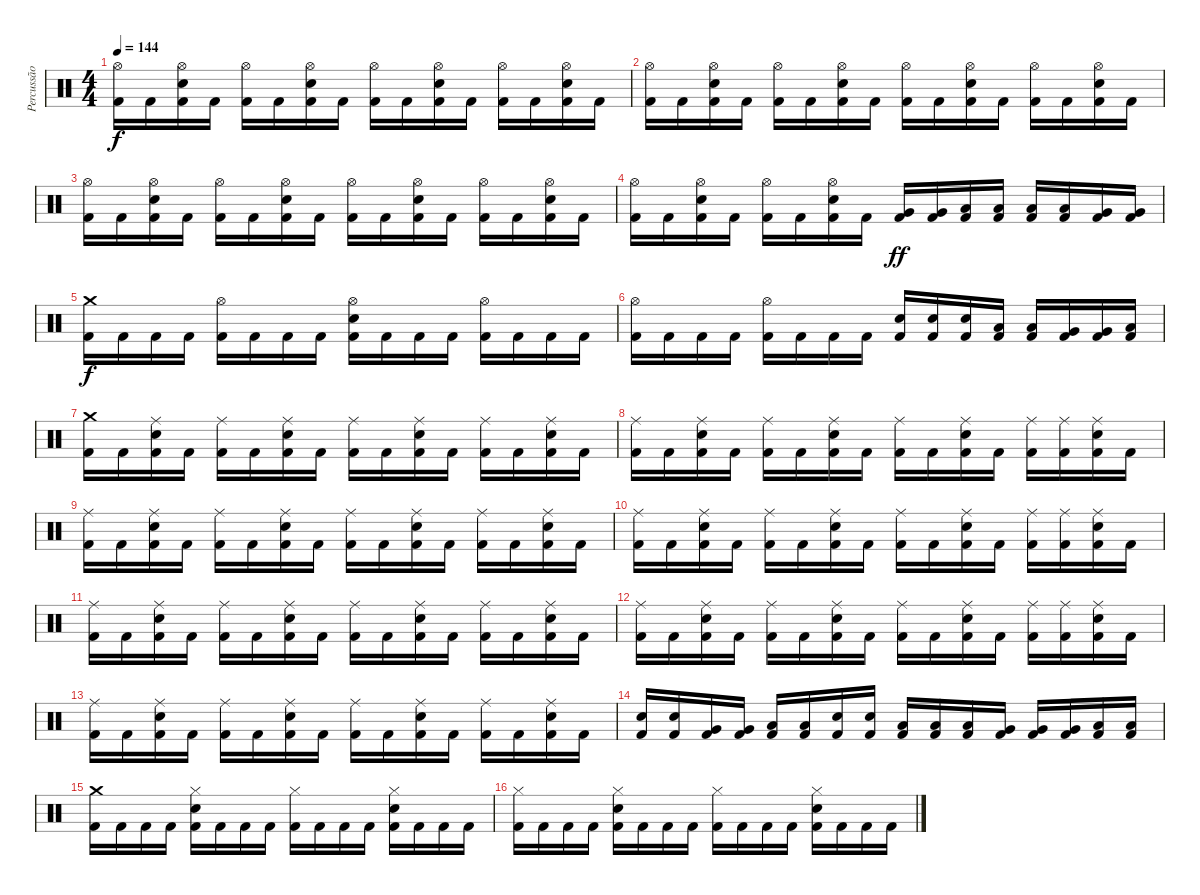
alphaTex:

\track ("Percussão" "Percussão") {instrument percussion}
\staff {score}
\articulation defaults
\ts (4 4)
\tempo 144
\clef neutral
\ks c
("Hi-Hat (open)" "Kick (hit) 2").16{dy f} "Kick (hit) 2".16 ("Hi-Hat (open)" "Electric Snare (hit)" "Kick (hit) 2").16 "Kick (hit) 2".16 ("Hi-Hat (open)" "Kick (hit) 2").16 "Kick (hit) 2".16 ("Hi-Hat (open)" "Electric Snare (hit)" "Kick (hit) 2").16 "Kick (hit) 2".16 ("Hi-Hat (open)" "Kick (hit) 2").16 "Kick (hit) 2".16 ("Hi-Hat (open)" "Electric Snare (hit)" "Kick (hit) 2").16 "Kick (hit) 2".16 ("Hi-Hat (open)" "Kick (hit) 2").16 "Kick (hit) 2".16 ("Hi-Hat (open)" "Electric Snare (hit)" "Kick (hit) 2").16 "Kick (hit) 2".16 |
("Hi-Hat (open)" "Kick (hit) 2").16 "Kick (hit) 2".16 ("Hi-Hat (open)" "Electric Snare (hit)" "Kick (hit) 2").16 "Kick (hit) 2".16 ("Hi-Hat (open)" "Kick (hit) 2").16 "Kick (hit) 2".16 ("Hi-Hat (open)" "Electric Snare (hit)" "Kick (hit) 2").16 "Kick (hit) 2".16 ("Hi-Hat (open)" "Kick (hit) 2").16 "Kick (hit) 2".16 ("Hi-Hat (open)" "Electric Snare (hit)" "Kick (hit) 2").16 "Kick (hit) 2".16 ("Hi-Hat (open)" "Kick (hit) 2").16 "Kick (hit) 2".16 ("Hi-Hat (open)" "Electric Snare (hit)" "Kick (hit) 2").16 "Kick (hit) 2".16 |
("Hi-Hat (open)" "Kick (hit) 2").16 "Kick (hit) 2".16 ("Hi-Hat (open)" "Electric Snare (hit)" "Kick (hit) 2").16 "Kick (hit) 2".16 ("Hi-Hat (open)" "Kick (hit) 2").16 "Kick (hit) 2".16 ("Hi-Hat (open)" "Electric Snare (hit)" "Kick (hit) 2").16 "Kick (hit) 2".16 ("Hi-Hat (open)" "Kick (hit) 2").16 "Kick (hit) 2".16 ("Hi-Hat (open)" "Electric Snare (hit)" "Kick (hit) 2").16 "Kick (hit) 2".16 ("Hi-Hat (open)" "Kick (hit) 2").16 "Kick (hit) 2".16 ("Hi-Hat (open)" "Electric Snare (hit)" "Kick (hit) 2").16 "Kick (hit) 2".16 |
("Hi-Hat (open)" "Kick (hit) 2").16 "Kick (hit) 2".16 ("Hi-Hat (open)" "Electric Snare (hit)" "Kick (hit) 2").16 "Kick (hit) 2".16 ("Hi-Hat (open)" "Kick (hit) 2").16 "Kick (hit) 2".16 ("Hi-Hat (open)" "Electric Snare (hit)" "Kick (hit) 2").16 "Kick (hit) 2".16 ("Very Low Tom (hit)" "Kick (hit) 2").16{dy ff} ("Very Low Tom (hit)" "Kick (hit) 2").16 ("Low Floor Tom (hit)" "Kick (hit) 2").16 ("Low Floor Tom (hit)" "Kick (hit) 2").16 ("Low Tom (hit)" "Kick (hit) 2").16 ("Low Tom (hit)" "Kick (hit) 2").16 ("Very Low Tom (hit)" "Kick (hit) 2").16 ("Very Low Tom (hit)" "Kick (hit) 2").16 |
("Crash medium (hit)" "Kick (hit) 2").16{dy f} "Kick (hit) 2".16 "Kick (hit) 2".16 "Kick (hit) 2".16 ("Hi-Hat (open)" "Kick (hit) 2").16 "Kick (hit) 2".16 "Kick (hit) 2".16 "Kick (hit) 2".16 ("Hi-Hat (open)" "Electric Snare (hit)" "Kick (hit) 2").16 "Kick (hit) 2".16 "Kick (hit) 2".16 "Kick (hit) 2".16 ("Hi-Hat (open)" "Kick (hit) 2").16 "Kick (hit) 2".16 "Kick (hit) 2".16 "Kick (hit) 2".16 |
("Hi-Hat (open)" "Kick (hit) 2").16 "Kick (hit) 2".16 "Kick (hit) 2".16 "Kick (hit) 2".16 ("Hi-Hat (open)" "Kick (hit) 2").16 "Kick (hit) 2".16 "Kick (hit) 2".16 "Kick (hit) 2".16 ("Electric Snare (hit)" "Kick (hit) 2").16 ("Electric Snare (hit)" "Kick (hit) 2").16 ("Electric Snare (hit)" "Kick (hit) 2").16 ("Low Tom (hit)" "Kick (hit) 2").16 ("Low Tom (hit)" "Kick (hit) 2").16 ("Very Low Tom (hit)" "Kick (hit) 2").16 ("Very Low Tom (hit)" "Kick (hit) 2").16 ("Low Floor Tom (hit)" "Kick (hit) 2").16 |
("Crash medium (hit)" "Kick (hit) 2").16 "Kick (hit) 2".16 ("Ride (middle)" "Electric Snare (hit)" "Kick (hit) 2").16 "Kick (hit) 2".16 ("Ride (middle)" "Kick (hit) 2").16 "Kick (hit) 2".16 ("Ride (middle)" "Electric Snare (hit)" "Kick (hit) 2").16 "Kick (hit) 2".16 ("Ride (middle)" "Kick (hit) 2").16 "Kick (hit) 2".16 ("Ride (middle)" "Electric Snare (hit)" "Kick (hit) 2").16 "Kick (hit) 2".16 ("Ride (middle)" "Kick (hit) 2").16 "Kick (hit) 2".16 ("Ride (middle)" "Electric Snare (hit)" "Kick (hit) 2").16 "Kick (hit) 2".16 |
("Ride (middle)" "Kick (hit) 2").16 "Kick (hit) 2".16 ("Ride (middle)" "Electric Snare (hit)" "Kick (hit) 2").16 "Kick (hit) 2".16 ("Ride (middle)" "Kick (hit) 2").16 "Kick (hit) 2".16 ("Ride (middle)" "Electric Snare (hit)" "Kick (hit) 2").16 "Kick (hit) 2".16 ("Ride (middle)" "Kick (hit) 2").16 "Kick (hit) 2".16 ("Ride (middle)" "Electric Snare (hit)" "Kick (hit) 2").16 "Kick (hit) 2".16 ("Ride (middle)" "Kick (hit) 2").16 ("Ride (middle)" "Kick (hit) 2").16 ("Ride (middle)" "Electric Snare (hit)" "Kick (hit) 2").16 "Kick (hit) 2".16 |
("Ride (middle)" "Kick (hit) 2").16 "Kick (hit) 2".16 ("Ride (middle)" "Electric Snare (hit)" "Kick (hit) 2").16 "Kick (hit) 2".16 ("Ride (middle)" "Kick (hit) 2").16 "Kick (hit) 2".16 ("Ride (middle)" "Electric Snare (hit)" "Kick (hit) 2").16 "Kick (hit) 2".16 ("Ride (middle)" "Kick (hit) 2").16 "Kick (hit) 2".16 ("Ride (middle)" "Electric Snare (hit)" "Kick (hit) 2").16 "Kick (hit) 2".16 ("Ride (middle)" "Kick (hit) 2").16 "Kick (hit) 2".16 ("Ride (middle)" "Electric Snare (hit)" "Kick (hit) 2").16 "Kick (hit) 2".16 |
("Ride (middle)" "Kick (hit) 2").16 "Kick (hit) 2".16 ("Ride (middle)" "Electric Snare (hit)" "Kick (hit) 2").16 "Kick (hit) 2".16 ("Ride (middle)" "Kick (hit) 2").16 "Kick (hit) 2".16 ("Ride (middle)" "Electric Snare (hit)" "Kick (hit) 2").16 "Kick (hit) 2".16 ("Ride (middle)" "Kick (hit) 2").16 "Kick (hit) 2".16 ("Ride (middle)" "Electric Snare (hit)" "Kick (hit) 2").16 "Kick (hit) 2".16 ("Ride (middle)" "Kick (hit) 2").16 ("Ride (middle)" "Kick (hit) 2").16 ("Ride (middle)" "Electric Snare (hit)" "Kick (hit) 2").16 "Kick (hit) 2".16 |
("Ride (middle)" "Kick (hit) 2").16 "Kick (hit) 2".16 ("Ride (middle)" "Electric Snare (hit)" "Kick (hit) 2").16 "Kick (hit) 2".16 ("Ride (middle)" "Kick (hit) 2").16 "Kick (hit) 2".16 ("Ride (middle)" "Electric Snare (hit)" "Kick (hit) 2").16 "Kick (hit) 2".16 ("Ride (middle)" "Kick (hit) 2").16 "Kick (hit) 2".16 ("Ride (middle)" "Electric Snare (hit)" "Kick (hit) 2").16 "Kick (hit) 2".16 ("Ride (middle)" "Kick (hit) 2").16 "Kick (hit) 2".16 ("Ride (middle)" "Electric Snare (hit)" "Kick (hit) 2").16 "Kick (hit) 2".16 |
("Ride (middle)" "Kick (hit) 2").16 "Kick (hit) 2".16 ("Ride (middle)" "Electric Snare (hit)" "Kick (hit) 2").16 "Kick (hit) 2".16 ("Ride (middle)" "Kick (hit) 2").16 "Kick (hit) 2".16 ("Ride (middle)" "Electric Snare (hit)" "Kick (hit) 2").16 "Kick (hit) 2".16 ("Ride (middle)" "Kick (hit) 2").16 "Kick (hit) 2".16 ("Ride (middle)" "Electric Snare (hit)" "Kick (hit) 2").16 "Kick (hit) 2".16 ("Ride (middle)" "Kick (hit) 2").16 ("Ride (middle)" "Kick (hit) 2").16 ("Ride (middle)" "Electric Snare (hit)" "Kick (hit) 2").16 "Kick (hit) 2".16 |
("Ride (middle)" "Kick (hit) 2").16 "Kick (hit) 2".16 ("Ride (middle)" "Electric Snare (hit)" "Kick (hit) 2").16 "Kick (hit) 2".16 ("Ride (middle)" "Kick (hit) 2").16 "Kick (hit) 2".16 ("Ride (middle)" "Electric Snare (hit)" "Kick (hit) 2").16 "Kick (hit) 2".16 ("Ride (middle)" "Kick (hit) 2").16 "Kick (hit) 2".16 ("Ride (middle)" "Electric Snare (hit)" "Kick (hit) 2").16 "Kick (hit) 2".16 ("Ride (middle)" "Kick (hit) 2").16 "Kick (hit) 2".16 ("Ride (middle)" "Electric Snare (hit)" "Kick (hit) 2").16 "Kick (hit) 2".16 |
("Electric Snare (hit)" "Kick (hit) 2").16 ("Electric Snare (hit)" "Kick (hit) 2").16 ("Very Low Tom (hit)" "Kick (hit) 2").16 ("Very Low Tom (hit)" "Kick (hit) 2").16 ("Low Floor Tom (hit)" "Kick (hit) 2").16 ("Low Floor Tom (hit)" "Kick (hit) 2").16 ("Electric Snare (hit)" "Kick (hit) 2").16 ("Electric Snare (hit)" "Kick (hit) 2").16 ("Low Tom (hit)" "Kick (hit) 2").16 ("Low Tom (hit)" "Kick (hit) 2").16 ("Low Tom (hit)" "Kick (hit) 2").16 ("Very Low Tom (hit)" "Kick (hit) 2").16 ("Very Low Tom (hit)" "Kick (hit) 2").16 ("Very Low Tom (hit)" "Kick (hit) 2").16 ("Low Floor Tom (hit)" "Kick (hit) 2").16 ("Low Floor Tom (hit)" "Kick (hit) 2").16 |
("Crash medium (hit)" "Kick (hit) 2").16 "Kick (hit) 2".16 "Kick (hit) 2".16 "Kick (hit) 2".16 ("Hi-Hat (closed)" "Electric Snare (hit)" "Kick (hit) 2").16 "Kick (hit) 2".16 "Kick (hit) 2".16 "Kick (hit) 2".16 ("Hi-Hat (closed)" "Kick (hit) 2").16 "Kick (hit) 2".16 "Kick (hit) 2".16 "Kick (hit) 2".16 ("Hi-Hat (closed)" "Electric Snare (hit)" "Kick (hit) 2").16 "Kick (hit) 2".16 "Kick (hit) 2".16 "Kick (hit) 2".16 |
("Hi-Hat (closed)" "Kick (hit) 2").16 "Kick (hit) 2".16 "Kick (hit) 2".16 "Kick (hit) 2".16 ("Hi-Hat (closed)" "Electric Snare (hit)" "Kick (hit) 2").16 "Kick (hit) 2".16 "Kick (hit) 2".16 "Kick (hit) 2".16 ("Hi-Hat (closed)" "Kick (hit) 2").16 "Kick (hit) 2".16 "Kick (hit) 2".16 "Kick (hit) 2".16 ("Hi-Hat (closed)" "Electric Snare (hit)" "Kick (hit) 2").16 "Kick (hit) 2".16 "Kick (hit) 2".16 "Kick (hit) 2".16
